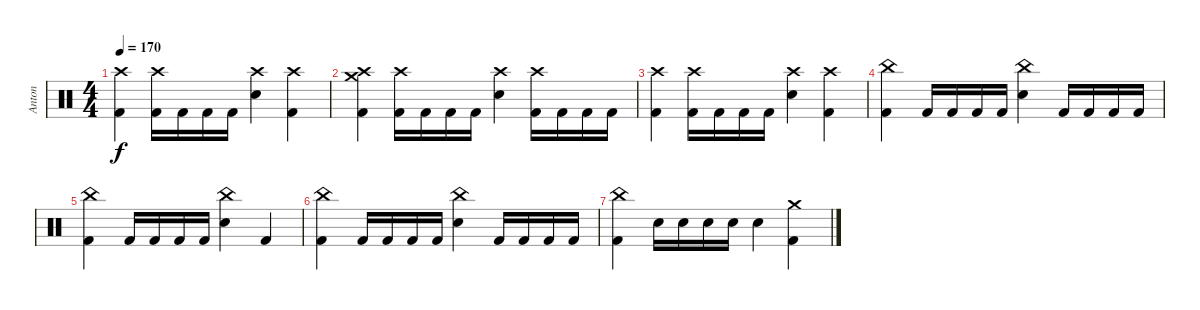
\track ("Anton" "Anton") {instrument percussion}
\staff
\articulation defaults
\ts (4 4)
\tempo 170
\clef neutral
\ks c
("Crash high (hit)" "Kick (hit) 2").4{dy f} ("Crash high (hit)" "Kick (hit) 2").16 "Kick (hit) 2".16 "Kick (hit) 2".16 "Kick (hit) 2".16 ("Crash high (hit)" "Electric Snare (hit)").4 ("Crash high (hit)" "Kick (hit) 2").4 |
("Crash high (hit)" "Crash medium (hit)" "Kick (hit) 2").4 ("Crash high (hit)" "Kick (hit) 2").16 "Kick (hit) 2".16 "Kick (hit) 2".16 "Kick (hit) 2".16 ("Crash high (hit)" "Electric Snare (hit)").4 ("Crash high (hit)" "Kick (hit) 2").16 "Kick (hit) 2".16 "Kick (hit) 2".16 "Kick (hit) 2".16 |
("Crash high (hit)" "Kick (hit) 2").4 ("Crash high (hit)" "Kick (hit) 2").16 "Kick (hit) 2".16 "Kick (hit) 2".16 "Kick (hit) 2".16 ("Crash high (hit)" "Electric Snare (hit)").4 ("Crash high (hit)" "Kick (hit) 2").4 |
("China (hit)" "Kick (hit) 2").4 "Kick (hit) 2".16 "Kick (hit) 2".16 "Kick (hit) 2".16 "Kick (hit) 2".16 ("China (hit)" "Electric Snare (hit)").4 "Kick (hit) 2".16 "Kick (hit) 2".16 "Kick (hit) 2".16 "Kick (hit) 2".16 |
("China (hit)" "Kick (hit) 2").4 "Kick (hit) 2".16 "Kick (hit) 2".16 "Kick (hit) 2".16 "Kick (hit) 2".16 ("China (hit)" "Electric Snare (hit)").4 "Kick (hit) 2".4 |
("China (hit)" "Kick (hit) 2").4 "Kick (hit) 2".16 "Kick (hit) 2".16 "Kick (hit) 2".16 "Kick (hit) 2".16 ("China (hit)" "Electric Snare (hit)").4 "Kick (hit) 2".16 "Kick (hit) 2".16 "Kick (hit) 2".16 "Kick (hit) 2".16 |
("China (hit)" "Kick (hit) 2").4 "Electric Snare (hit)".16 "Electric Snare (hit)".16 "Electric Snare (hit)".16 "Electric Snare (hit)".16 "Electric Snare (hit)".4 ("Crash medium (hit)" "Kick (hit) 2").4
